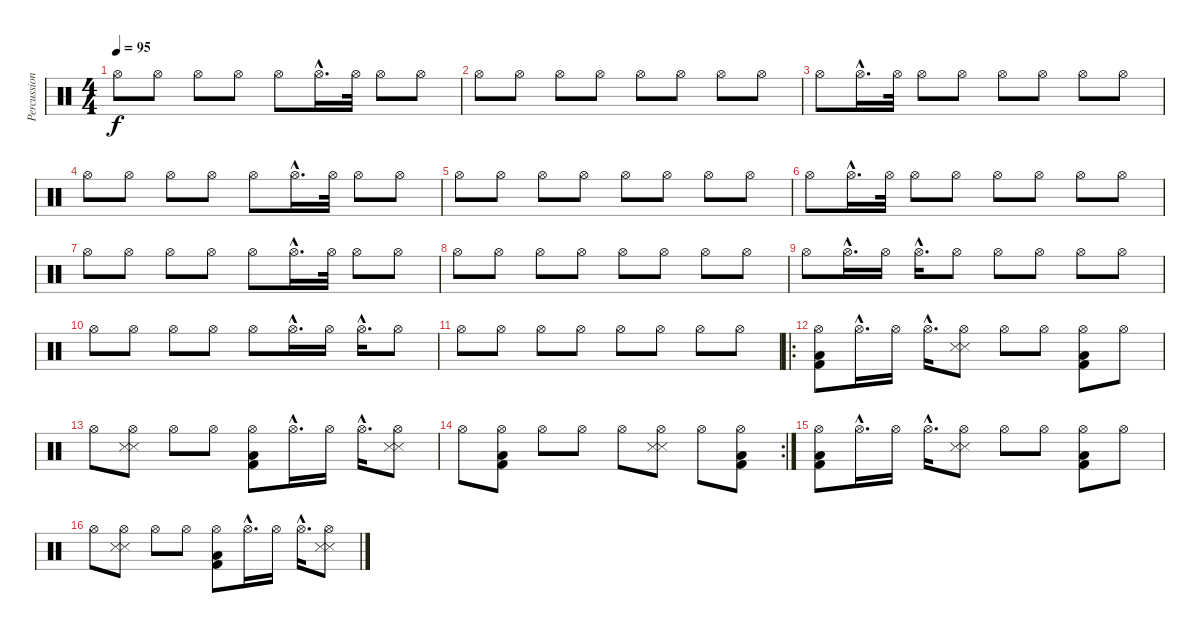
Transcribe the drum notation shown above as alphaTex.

\track ("Percussions" "Percussion") {instrument percussion}
\staff {score}
\articulation defaults
\ts (4 4)
\tempo 95
\clef neutral
\ks c "Hi-Hat (open)".8{dy f} "Hi-Hat (open)".8 "Hi-Hat (open)".8 "Hi-Hat (open)".8 "Hi-Hat (open)".8 "Hi-Hat (open)"{hac}.16{d} "Hi-Hat (open)".32 "Hi-Hat (open)".8 "Hi-Hat (open)".8
|
"Hi-Hat (open)".8 "Hi-Hat (open)".8 "Hi-Hat (open)".8 "Hi-Hat (open)".8 "Hi-Hat (open)".8 "Hi-Hat (open)".8 "Hi-Hat (open)".8 "Hi-Hat (open)".8 |
"Hi-Hat (open)".8 "Hi-Hat (open)"{hac}.16{d} "Hi-Hat (open)".32 "Hi-Hat (open)".8 "Hi-Hat (open)".8 "Hi-Hat (open)".8 "Hi-Hat (open)".8 "Hi-Hat (open)".8 "Hi-Hat (open)".8 |
"Hi-Hat (open)".8 "Hi-Hat (open)".8 "Hi-Hat (open)".8 "Hi-Hat (open)".8 "Hi-Hat (open)".8 "Hi-Hat (open)"{hac}.16{d} "Hi-Hat (open)".32 "Hi-Hat (open)".8 "Hi-Hat (open)".8 |
"Hi-Hat (open)".8 "Hi-Hat (open)".8 "Hi-Hat (open)".8 "Hi-Hat (open)".8 "Hi-Hat (open)".8 "Hi-Hat (open)".8 "Hi-Hat (open)".8 "Hi-Hat (open)".8 |
"Hi-Hat (open)".8 "Hi-Hat (open)"{hac}.16{d} "Hi-Hat (open)".32 "Hi-Hat (open)".8 "Hi-Hat (open)".8 "Hi-Hat (open)".8 "Hi-Hat (open)".8 "Hi-Hat (open)".8 "Hi-Hat (open)".8 |
"Hi-Hat (open)".8 "Hi-Hat (open)".8 "Hi-Hat (open)".8 "Hi-Hat (open)".8 "Hi-Hat (open)".8 "Hi-Hat (open)"{hac}.16{d} "Hi-Hat (open)".32 "Hi-Hat (open)".8 "Hi-Hat (open)".8 |
"Hi-Hat (open)".8 "Hi-Hat (open)".8 "Hi-Hat (open)".8 "Hi-Hat (open)".8 "Hi-Hat (open)".8 "Hi-Hat (open)".8 "Hi-Hat (open)".8 "Hi-Hat (open)".8 |
"Hi-Hat (open)".8 "Hi-Hat (open)"{hac}.16{d} "Hi-Hat (open)".16 "Hi-Hat (open)"{hac}.16{d} "Hi-Hat (open)".8 "Hi-Hat (open)".8 "Hi-Hat (open)".8 "Hi-Hat (open)".8 "Hi-Hat (open)".8 |
"Hi-Hat (open)".8 "Hi-Hat (open)".8 "Hi-Hat (open)".8 "Hi-Hat (open)".8 "Hi-Hat (open)".8 "Hi-Hat (open)"{hac}.16{d} "Hi-Hat (open)".16 "Hi-Hat (open)"{hac}.16{d} "Hi-Hat (open)".8 |
"Hi-Hat (open)".8 "Hi-Hat (open)".8 "Hi-Hat (open)".8 "Hi-Hat (open)".8 "Hi-Hat (open)".8 "Hi-Hat (open)".8 "Hi-Hat (open)".8 "Hi-Hat (open)".8 |
\ro
("Hi-Hat (open)" "Kick (hit) 2" "Low Floor Tom (hit)").8 "Hi-Hat (open)"{hac}.16{d} "Hi-Hat (open)".16 "Hi-Hat (open)"{hac}.16{d} ("Hi-Hat (open)" "Snare (side stick) 3" "Snare (side stick) 3").8 "Hi-Hat (open)".8 "Hi-Hat (open)".8 ("Hi-Hat (open)" "Kick (hit) 2" "Low Floor Tom (hit)").8 "Hi-Hat (open)".8 |
"Hi-Hat (open)".8 ("Hi-Hat (open)" "Snare (side stick) 3" "Snare (side stick) 3").8 "Hi-Hat (open)".8 "Hi-Hat (open)".8 ("Hi-Hat (open)" "Kick (hit) 2" "Low Floor Tom (hit)").8 "Hi-Hat (open)"{hac}.16{d} "Hi-Hat (open)".16 "Hi-Hat (open)"{hac}.16{d} ("Hi-Hat (open)" "Snare (side stick) 3" "Snare (side stick) 3").8 |
\rc 2 "Hi-Hat (open)".8
("Hi-Hat (open)" "Kick (hit) 2" "Low Floor Tom (hit)").8 "Hi-Hat (open)".8 "Hi-Hat (open)".8 "Hi-Hat (open)".8 ("Hi-Hat (open)" "Snare (side stick) 3" "Snare (side stick) 3").8 "Hi-Hat (open)".8 ("Hi-Hat (open)" "Kick (hit) 2" "Low Floor Tom (hit)").8 |
("Hi-Hat (open)" "Kick (hit) 2" "Low Floor Tom (hit)").8 "Hi-Hat (open)"{hac}.16{d} "Hi-Hat (open)".16 "Hi-Hat (open)"{hac}.16{d} ("Hi-Hat (open)" "Snare (side stick) 3" "Snare (side stick) 3").8 "Hi-Hat (open)".8 "Hi-Hat (open)".8 ("Hi-Hat (open)" "Kick (hit) 2" "Low Floor Tom (hit)").8 "Hi-Hat (open)".8 |
"Hi-Hat (open)".8 ("Hi-Hat (open)" "Snare (side stick) 3" "Snare (side stick) 3").8 "Hi-Hat (open)".8 "Hi-Hat (open)".8 ("Hi-Hat (open)" "Kick (hit) 2" "Low Floor Tom (hit)").8 "Hi-Hat (open)"{hac}.16{d} "Hi-Hat (open)".16 "Hi-Hat (open)"{hac}.16{d} ("Hi-Hat (open)" "Snare (side stick) 3" "Snare (side stick) 3").8
